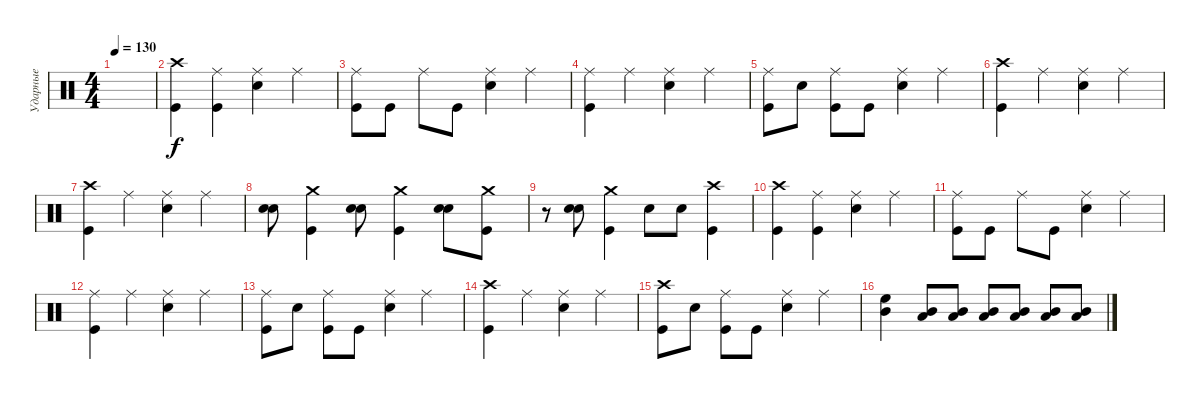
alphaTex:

\track ("Ударные" "Ударные") {instrument percussion}
\staff {score}
\articulation defaults
\ts (4 4)
\tempo 130
\clef neutral
\ks c
|
("Kick (hit)" "Crash high (hit)").4 ("Kick (hit)" "Ride (middle)").4 ("Snare (hit) 2" "Ride (middle)").4 "Ride (middle)".4 |
("Ride (middle)" "Kick (hit)").8 "Kick (hit)".8 "Ride (middle)".8 "Kick (hit)".8 ("Snare (hit) 2" "Ride (middle)").4 "Ride (middle)".4 |
("Kick (hit)" "Ride (middle)").4 "Ride (middle)".4 ("Snare (hit) 2" "Ride (middle)").4 "Ride (middle)".4 |
("Kick (hit)" "Ride (middle)").8 "Snare (hit) 2".8 ("Kick (hit)" "Ride (middle)").8 "Kick (hit)".8 ("Snare (hit) 2" "Ride (middle)").4 "Ride (middle)".4 |
("Kick (hit)" "Crash high (hit)").4 "Ride (middle)".4 ("Snare (hit) 2" "Ride (middle)").4 "Ride (middle)".4 |
("Kick (hit)" "Crash high (hit)").4 "Ride (middle)".4 ("Snare (hit) 2" "Ride (middle)").4 "Ride (middle)".4 |
("Snare (hit) 2" "Snare (hit) 2").8 ("Crash medium (hit)" "Kick (hit)").4 ("Snare (hit) 2" "Snare (hit) 2").8 ("Crash medium (hit)" "Kick (hit)").4 ("Snare (hit) 2" "Snare (hit) 2").8 ("Crash medium (hit)" "Kick (hit)").8 |
r.8 ("Snare (hit) 2" "Snare (hit) 2").8 ("Kick (hit)" "Crash medium (hit)").4 "Snare (hit) 2".8 "Snare (hit) 2".8 ("Kick (hit)" "Crash high (hit)").4 |
("Kick (hit)" "Crash high (hit)").4 ("Kick (hit)" "Ride (middle)").4 ("Snare (hit) 2" "Ride (middle)").4 "Ride (middle)".4 |
("Kick (hit)" "Ride (middle)").8 "Kick (hit)".8 "Ride (middle)".8 "Kick (hit)".8 ("Snare (hit) 2" "Ride (middle)").4 "Ride (middle)".4 |
("Kick (hit)" "Ride (middle)").4 "Ride (middle)".4 ("Snare (hit) 2" "Ride (middle)").4 "Ride (middle)".4 |
("Kick (hit)" "Ride (middle)").8 "Snare (hit) 2".8 ("Kick (hit)" "Ride (middle)").8 "Kick (hit)".8 ("Snare (hit) 2" "Ride (middle)").4 "Ride (middle)".4 |
("Kick (hit)" "Crash high (hit)").4 "Ride (middle)".4 ("Snare (hit) 2" "Ride (middle)").4 "Ride (middle)".4 |
("Kick (hit)" "Crash high (hit)").8 "Snare (hit) 2".8 ("Kick (hit)" "Ride (middle)").8 "Kick (hit)".8 ("Snare (hit) 2" "Ride (middle)").4 "Ride (middle)".4 |
("High Floor Tom (hit)" "Mid Tom (hit)").4 ("Mid Tom (hit)" "Low Tom (hit)").8 ("Mid Tom (hit)" "Low Tom (hit)").8 ("Low Tom (hit)" "Mid Tom (hit)").8 ("Low Tom (hit)" "Mid Tom (hit)").8 ("Mid Tom (hit)" "Low Tom (hit)").8 ("Low Tom (hit)" "Mid Tom (hit)").8
